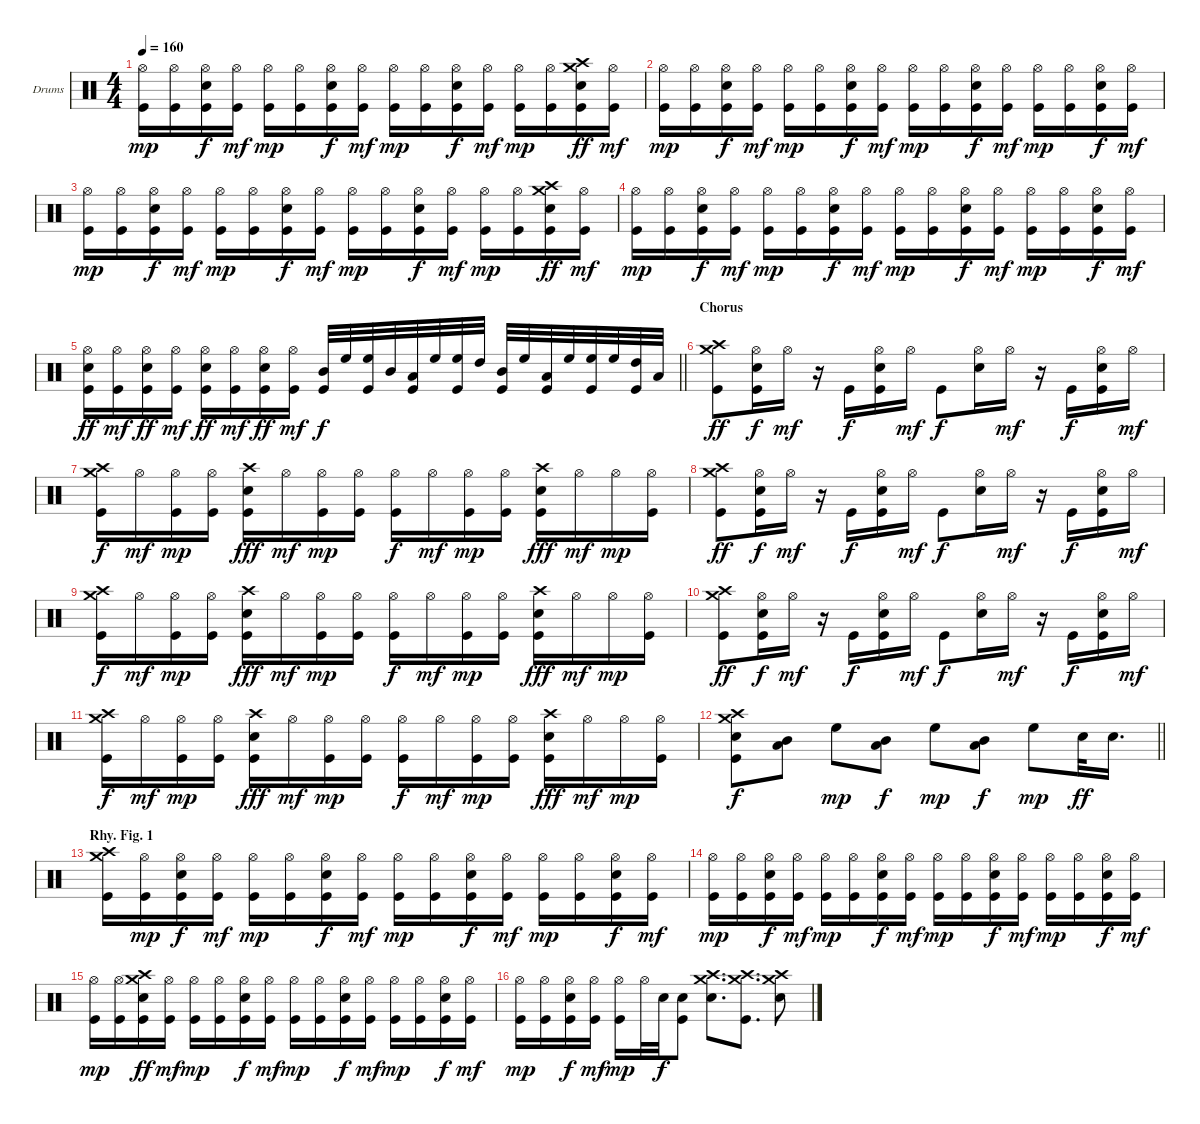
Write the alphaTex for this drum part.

\bracketExtendMode groupsimilarinstruments
\firstSystemTrackNameOrientation horizontal
\otherSystemsTrackNameOrientation horizontal
\track ("Drumkit" "Drums") {instrument percussion}
\staff {score}
\articulation defaults
\ts (4 4)
\tempo 160
\clef neutral
\ks c
("Hi-Hat (open)" "Kick (hit)").16{dy mp} ("Hi-Hat (open)" "Kick (hit)").16 ("Hi-Hat (open)" "Snare (hit) 2" "Kick (hit)").16{dy f} ("Hi-Hat (open)" "Kick (hit)").16{dy mf} ("Hi-Hat (open)" "Kick (hit)").16{dy mp} ("Hi-Hat (open)" "Kick (hit)").16 ("Hi-Hat (open)" "Snare (hit) 2" "Kick (hit)").16{dy f} ("Hi-Hat (open)" "Kick (hit)").16{dy mf} ("Hi-Hat (open)" "Kick (hit)").16{dy mp} ("Hi-Hat (open)" "Kick (hit)").16 ("Hi-Hat (open)" "Snare (hit) 2" "Kick (hit)").16{dy f} ("Hi-Hat (open)" "Kick (hit)").16{dy mf} ("Hi-Hat (open)" "Kick (hit)").16{dy mp} ("Hi-Hat (open)" "Kick (hit)").16 ("Crash medium (hit)" "Crash high (hit)" "Snare (hit) 2" "Kick (hit)").16{dy ff} ("Hi-Hat (open)" "Kick (hit)").16{dy mf} |
("Hi-Hat (open)" "Kick (hit)").16{dy mp} ("Hi-Hat (open)" "Kick (hit)").16 ("Hi-Hat (open)" "Snare (hit) 2" "Kick (hit)").16{dy f} ("Hi-Hat (open)" "Kick (hit)").16{dy mf} ("Hi-Hat (open)" "Kick (hit)").16{dy mp} ("Hi-Hat (open)" "Kick (hit)").16 ("Hi-Hat (open)" "Snare (hit) 2" "Kick (hit)").16{dy f} ("Hi-Hat (open)" "Kick (hit)").16{dy mf} ("Hi-Hat (open)" "Kick (hit)").16{dy mp} ("Hi-Hat (open)" "Kick (hit)").16 ("Hi-Hat (open)" "Snare (hit) 2" "Kick (hit)").16{dy f} ("Hi-Hat (open)" "Kick (hit)").16{dy mf} ("Hi-Hat (open)" "Kick (hit)").16{dy mp} ("Hi-Hat (open)" "Kick (hit)").16 ("Hi-Hat (open)" "Snare (hit) 2" "Kick (hit)").16{dy f} ("Hi-Hat (open)" "Kick (hit)").16{dy mf} |
("Hi-Hat (open)" "Kick (hit)").16{dy mp} ("Hi-Hat (open)" "Kick (hit)").16 ("Hi-Hat (open)" "Snare (hit) 2" "Kick (hit)").16{dy f} ("Hi-Hat (open)" "Kick (hit)").16{dy mf} ("Hi-Hat (open)" "Kick (hit)").16{dy mp} ("Hi-Hat (open)" "Kick (hit)").16 ("Hi-Hat (open)" "Snare (hit) 2" "Kick (hit)").16{dy f} ("Hi-Hat (open)" "Kick (hit)").16{dy mf} ("Hi-Hat (open)" "Kick (hit)").16{dy mp} ("Hi-Hat (open)" "Kick (hit)").16 ("Hi-Hat (open)" "Snare (hit) 2" "Kick (hit)").16{dy f} ("Hi-Hat (open)" "Kick (hit)").16{dy mf} ("Hi-Hat (open)" "Kick (hit)").16{dy mp} ("Hi-Hat (open)" "Kick (hit)").16 ("Crash medium (hit)" "Crash high (hit)" "Snare (hit) 2" "Kick (hit)").16{dy ff} ("Hi-Hat (open)" "Kick (hit)").16{dy mf} |
("Hi-Hat (open)" "Kick (hit)").16{dy mp} ("Hi-Hat (open)" "Kick (hit)").16 ("Hi-Hat (open)" "Snare (hit) 2" "Kick (hit)").16{dy f} ("Hi-Hat (open)" "Kick (hit)").16{dy mf} ("Hi-Hat (open)" "Kick (hit)").16{dy mp} ("Hi-Hat (open)" "Kick (hit)").16 ("Hi-Hat (open)" "Snare (hit) 2" "Kick (hit)").16{dy f} ("Hi-Hat (open)" "Kick (hit)").16{dy mf} ("Hi-Hat (open)" "Kick (hit)").16{dy mp} ("Hi-Hat (open)" "Kick (hit)").16 ("Hi-Hat (open)" "Snare (hit) 2" "Kick (hit)").16{dy f} ("Hi-Hat (open)" "Kick (hit)").16{dy mf} ("Hi-Hat (open)" "Kick (hit)").16{dy mp} ("Hi-Hat (open)" "Kick (hit)").16 ("Hi-Hat (open)" "Snare (hit) 2" "Kick (hit)").16{dy f} ("Hi-Hat (open)" "Kick (hit)").16{dy mf} |
\barLineRight lightlight
("Hi-Hat (open)" "Snare (hit) 2" "Kick (hit)").16{dy ff} ("Hi-Hat (open)" "Kick (hit)").16{dy mf} ("Hi-Hat (open)" "Snare (hit) 2" "Kick (hit)").16{dy ff} ("Hi-Hat (open)" "Kick (hit)").16{dy mf} ("Hi-Hat (open)" "Snare (hit) 2" "Kick (hit)").16{dy ff} ("Hi-Hat (open)" "Kick (hit)").16{dy mf} ("Hi-Hat (open)" "Snare (hit) 2" "Kick (hit)").16{dy ff} ("Hi-Hat (open)" "Kick (hit)").16{dy mf} ("Mid Tom (hit)" "Kick (hit)").32{dy f} "High Floor Tom (hit)".32 ("High Floor Tom (hit)" "Kick (hit)").32 "Mid Tom (hit)".32 ("Low Tom (hit)" "Kick (hit)").32 "High Floor Tom (hit)".32 ("High Floor Tom (hit)" "Kick (hit)").32 "High Tom (hit)".32 ("Mid Tom (hit)" "Kick (hit)").32 "High Floor Tom (hit)".32 ("Low Tom (hit)" "Kick (hit)").32 "High Floor Tom (hit)".32 ("High Floor Tom (hit)" "Kick (hit)").32 "High Floor Tom (hit)".32 ("High Tom (hit)" "Kick (hit)").32 "Low Tom (hit)".32 |
\section ("" "Chorus")
("Crash medium (hit)" "Crash high (hit)" "Kick (hit)").8{dy ff} ("Hi-Hat (open)" "Snare (hit) 2" "Kick (hit)").16{dy f} "Hi-Hat (open)".16{dy mf} r.16 "Kick (hit)".16{dy f} ("Hi-Hat (open)" "Snare (hit) 2" "Kick (hit)").16 "Hi-Hat (open)".16{dy mf} "Kick (hit)".8{dy f} ("Hi-Hat (open)" "Snare (hit) 2").16 "Hi-Hat (open)".16{dy mf} r.16 "Kick (hit)".16{dy f} ("Hi-Hat (open)" "Snare (hit) 2" "Kick (hit)").16 "Hi-Hat (open)".16{dy mf} |
("Crash medium (hit)" "Crash high (hit)" "Kick (hit)").16{dy f} "Hi-Hat (open)".16{dy mf} ("Hi-Hat (open)" "Kick (hit)").16{dy mp} ("Hi-Hat (open)" "Kick (hit)").16 ("Crash high (hit)" "Snare (hit) 2" "Kick (hit)").16{dy fff} "Hi-Hat (open)".16{dy mf} ("Hi-Hat (open)" "Kick (hit)").16{dy mp} ("Hi-Hat (open)" "Kick (hit)").16 ("Hi-Hat (open)" "Kick (hit)").16{dy f} "Hi-Hat (open)".16{dy mf} ("Hi-Hat (open)" "Kick (hit)").16{dy mp} ("Hi-Hat (open)" "Kick (hit)").16 ("Crash high (hit)" "Snare (hit) 2" "Kick (hit)").16{dy fff} "Hi-Hat (open)".16{dy mf} "Hi-Hat (open)".16{dy mp} ("Hi-Hat (open)" "Kick (hit)").16 |
("Crash medium (hit)" "Crash high (hit)" "Kick (hit)").8{dy ff} ("Hi-Hat (open)" "Snare (hit) 2" "Kick (hit)").16{dy f} "Hi-Hat (open)".16{dy mf} r.16 "Kick (hit)".16{dy f} ("Hi-Hat (open)" "Snare (hit) 2" "Kick (hit)").16 "Hi-Hat (open)".16{dy mf} "Kick (hit)".8{dy f} ("Hi-Hat (open)" "Snare (hit) 2").16 "Hi-Hat (open)".16{dy mf} r.16 "Kick (hit)".16{dy f} ("Hi-Hat (open)" "Snare (hit) 2" "Kick (hit)").16 "Hi-Hat (open)".16{dy mf} |
("Crash medium (hit)" "Crash high (hit)" "Kick (hit)").16{dy f} "Hi-Hat (open)".16{dy mf} ("Hi-Hat (open)" "Kick (hit)").16{dy mp} ("Hi-Hat (open)" "Kick (hit)").16 ("Crash high (hit)" "Snare (hit) 2" "Kick (hit)").16{dy fff} "Hi-Hat (open)".16{dy mf} ("Hi-Hat (open)" "Kick (hit)").16{dy mp} ("Hi-Hat (open)" "Kick (hit)").16 ("Hi-Hat (open)" "Kick (hit)").16{dy f} "Hi-Hat (open)".16{dy mf} ("Hi-Hat (open)" "Kick (hit)").16{dy mp} ("Hi-Hat (open)" "Kick (hit)").16 ("Crash high (hit)" "Snare (hit) 2" "Kick (hit)").16{dy fff} "Hi-Hat (open)".16{dy mf} "Hi-Hat (open)".16{dy mp} ("Hi-Hat (open)" "Kick (hit)").16 |
("Crash medium (hit)" "Crash high (hit)" "Kick (hit)").8{dy ff} ("Hi-Hat (open)" "Snare (hit) 2" "Kick (hit)").16{dy f} "Hi-Hat (open)".16{dy mf} r.16 "Kick (hit)".16{dy f} ("Hi-Hat (open)" "Snare (hit) 2" "Kick (hit)").16 "Hi-Hat (open)".16{dy mf} "Kick (hit)".8{dy f} ("Hi-Hat (open)" "Snare (hit) 2").16 "Hi-Hat (open)".16{dy mf} r.16 "Kick (hit)".16{dy f} ("Hi-Hat (open)" "Snare (hit) 2" "Kick (hit)").16 "Hi-Hat (open)".16{dy mf} |
("Crash medium (hit)" "Crash high (hit)" "Kick (hit)").16{dy f} "Hi-Hat (open)".16{dy mf} ("Hi-Hat (open)" "Kick (hit)").16{dy mp} ("Hi-Hat (open)" "Kick (hit)").16 ("Crash high (hit)" "Snare (hit) 2" "Kick (hit)").16{dy fff} "Hi-Hat (open)".16{dy mf} ("Hi-Hat (open)" "Kick (hit)").16{dy mp} ("Hi-Hat (open)" "Kick (hit)").16 ("Hi-Hat (open)" "Kick (hit)").16{dy f} "Hi-Hat (open)".16{dy mf} ("Hi-Hat (open)" "Kick (hit)").16{dy mp} ("Hi-Hat (open)" "Kick (hit)").16 ("Crash high (hit)" "Snare (hit) 2" "Kick (hit)").16{dy fff} "Hi-Hat (open)".16{dy mf} "Hi-Hat (open)".16{dy mp} ("Hi-Hat (open)" "Kick (hit)").16 |
\barLineRight lightlight
("Crash medium (hit)" "Crash high (hit)" "Snare (hit) 2" "Kick (hit)").8{dy f} ("Mid Tom (hit)" "Low Tom (hit)").8 "High Floor Tom (hit)".8{dy mp} ("Mid Tom (hit)" "Low Tom (hit)").8{dy f} "High Floor Tom (hit)".8{dy mp} ("Mid Tom (hit)" "Low Tom (hit)").8{dy f} "High Floor Tom (hit)".8{dy mp} "Snare (hit) 2".32{dy ff} "Snare (hit) 2".16{d} |
\section ("" "Rhy. Fig. 1")
("Crash medium (hit)" "Crash high (hit)" "Kick (hit)").16 ("Hi-Hat (open)" "Kick (hit)").16{dy mp} ("Hi-Hat (open)" "Snare (hit) 2" "Kick (hit)").16{dy f} ("Hi-Hat (open)" "Kick (hit)").16{dy mf} ("Hi-Hat (open)" "Kick (hit)").16{dy mp} ("Hi-Hat (open)" "Kick (hit)").16 ("Hi-Hat (open)" "Snare (hit) 2" "Kick (hit)").16{dy f} ("Hi-Hat (open)" "Kick (hit)").16{dy mf} ("Hi-Hat (open)" "Kick (hit)").16{dy mp} ("Hi-Hat (open)" "Kick (hit)").16 ("Hi-Hat (open)" "Snare (hit) 2" "Kick (hit)").16{dy f} ("Hi-Hat (open)" "Kick (hit)").16{dy mf} ("Hi-Hat (open)" "Kick (hit)").16{dy mp} ("Hi-Hat (open)" "Kick (hit)").16 ("Hi-Hat (open)" "Snare (hit) 2" "Kick (hit)").16{dy f} ("Hi-Hat (open)" "Kick (hit)").16{dy mf} |
("Hi-Hat (open)" "Kick (hit)").16{dy mp} ("Hi-Hat (open)" "Kick (hit)").16 ("Hi-Hat (open)" "Snare (hit) 2" "Kick (hit)").16{dy f} ("Hi-Hat (open)" "Kick (hit)").16{dy mf} ("Hi-Hat (open)" "Kick (hit)").16{dy mp} ("Hi-Hat (open)" "Kick (hit)").16 ("Hi-Hat (open)" "Snare (hit) 2" "Kick (hit)").16{dy f} ("Hi-Hat (open)" "Kick (hit)").16{dy mf} ("Hi-Hat (open)" "Kick (hit)").16{dy mp} ("Hi-Hat (open)" "Kick (hit)").16 ("Hi-Hat (open)" "Snare (hit) 2" "Kick (hit)").16{dy f} ("Hi-Hat (open)" "Kick (hit)").16{dy mf} ("Hi-Hat (open)" "Kick (hit)").16{dy mp} ("Hi-Hat (open)" "Kick (hit)").16 ("Hi-Hat (open)" "Snare (hit) 2" "Kick (hit)").16{dy f} ("Hi-Hat (open)" "Kick (hit)").16{dy mf} |
("Hi-Hat (open)" "Kick (hit)").16{dy mp} ("Hi-Hat (open)" "Kick (hit)").16 ("Crash medium (hit)" "Crash high (hit)" "Snare (hit) 2" "Kick (hit)").16{dy ff} ("Hi-Hat (open)" "Kick (hit)").16{dy mf} ("Hi-Hat (open)" "Kick (hit)").16{dy mp} ("Hi-Hat (open)" "Kick (hit)").16 ("Hi-Hat (open)" "Snare (hit) 2" "Kick (hit)").16{dy f} ("Hi-Hat (open)" "Kick (hit)").16{dy mf} ("Hi-Hat (open)" "Kick (hit)").16{dy mp} ("Hi-Hat (open)" "Kick (hit)").16 ("Hi-Hat (open)" "Snare (hit) 2" "Kick (hit)").16{dy f} ("Hi-Hat (open)" "Kick (hit)").16{dy mf} ("Hi-Hat (open)" "Kick (hit)").16{dy mp} ("Hi-Hat (open)" "Kick (hit)").16 ("Hi-Hat (open)" "Snare (hit) 2" "Kick (hit)").16{dy f} ("Hi-Hat (open)" "Kick (hit)").16{dy mf} |
("Hi-Hat (open)" "Kick (hit)").16{dy mp} ("Hi-Hat (open)" "Kick (hit)").16 ("Hi-Hat (open)" "Snare (hit) 2" "Kick (hit)").16{dy f} ("Hi-Hat (open)" "Kick (hit)").16{dy mf} ("Hi-Hat (open)" "Kick (hit)").16{dy mp} "Hi-Hat (open)".32 "Snare (hit) 2".32{dy f} ("Snare (hit) 2" "Kick (hit)").8 ("Crash medium (hit)" "Crash high (hit)" "Snare (hit) 2").8{d} ("Crash medium (hit)" "Crash high (hit)" "Kick (hit)").8{d} ("Crash medium (hit)" "Crash high (hit)" "Snare (hit) 2").8
